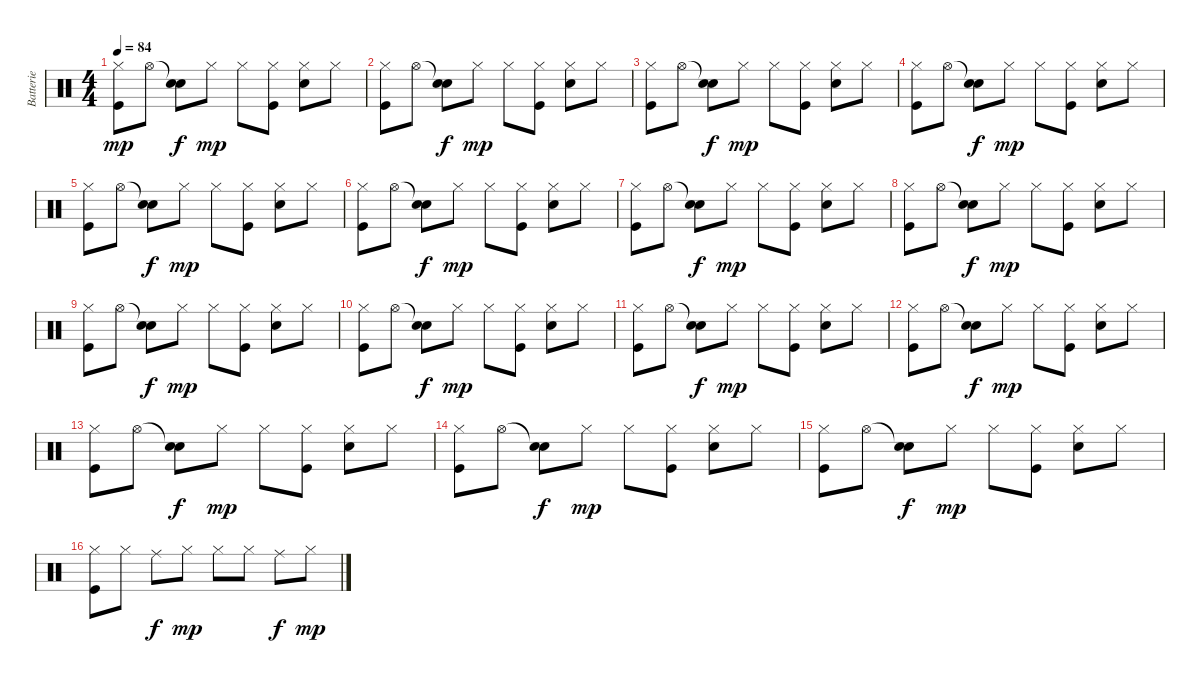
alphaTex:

\track ("Batterie" "Batterie") {instrument percussion}
\staff {score}
\articulation defaults
\ts (4 4)
\tempo 84
\clef neutral
\ks c
("Hi-Hat (closed)" "Kick (hit)").8{dy mp} "Hi-Hat (open)".8 ("Snare (hit)"{t} "Snare (hit) 2").8{dy f} "Hi-Hat (closed)".8{dy mp} "Hi-Hat (closed)".8 ("Hi-Hat (closed)" "Kick (hit)").8 ("Hi-Hat (closed)" "Snare (hit) 2").8 "Hi-Hat (closed)".8 |
("Hi-Hat (closed)" "Kick (hit)").8 "Hi-Hat (open)".8 ("Snare (hit)"{t} "Snare (hit) 2").8{dy f} "Hi-Hat (closed)".8{dy mp} "Hi-Hat (closed)".8 ("Hi-Hat (closed)" "Kick (hit)").8 ("Hi-Hat (closed)" "Snare (hit) 2").8 "Hi-Hat (closed)".8 |
("Hi-Hat (closed)" "Kick (hit)").8 "Hi-Hat (open)".8 ("Snare (hit)"{t} "Snare (hit) 2").8{dy f} "Hi-Hat (closed)".8{dy mp} "Hi-Hat (closed)".8 ("Hi-Hat (closed)" "Kick (hit)").8 ("Hi-Hat (closed)" "Snare (hit) 2").8 "Hi-Hat (closed)".8 |
("Hi-Hat (closed)" "Kick (hit)").8 "Hi-Hat (open)".8 ("Snare (hit)"{t} "Snare (hit) 2").8{dy f} "Hi-Hat (closed)".8{dy mp} "Hi-Hat (closed)".8 ("Hi-Hat (closed)" "Kick (hit)").8 ("Hi-Hat (closed)" "Snare (hit) 2").8 "Hi-Hat (closed)".8 |
("Hi-Hat (closed)" "Kick (hit)").8 "Hi-Hat (open)".8 ("Snare (hit)"{t} "Snare (hit) 2").8{dy f} "Hi-Hat (closed)".8{dy mp} "Hi-Hat (closed)".8 ("Hi-Hat (closed)" "Kick (hit)").8 ("Hi-Hat (closed)" "Snare (hit) 2").8 "Hi-Hat (closed)".8 |
("Hi-Hat (closed)" "Kick (hit)").8 "Hi-Hat (open)".8 ("Snare (hit)"{t} "Snare (hit) 2").8{dy f} "Hi-Hat (closed)".8{dy mp} "Hi-Hat (closed)".8 ("Hi-Hat (closed)" "Kick (hit)").8 ("Hi-Hat (closed)" "Snare (hit) 2").8 "Hi-Hat (closed)".8 |
("Hi-Hat (closed)" "Kick (hit)").8 "Hi-Hat (open)".8 ("Snare (hit)"{t} "Snare (hit) 2").8{dy f} "Hi-Hat (closed)".8{dy mp} "Hi-Hat (closed)".8 ("Hi-Hat (closed)" "Kick (hit)").8 ("Hi-Hat (closed)" "Snare (hit) 2").8 "Hi-Hat (closed)".8 |
("Hi-Hat (closed)" "Kick (hit)").8 "Hi-Hat (open)".8 ("Snare (hit)"{t} "Snare (hit) 2").8{dy f} "Hi-Hat (closed)".8{dy mp} "Hi-Hat (closed)".8 ("Hi-Hat (closed)" "Kick (hit)").8 ("Hi-Hat (closed)" "Snare (hit) 2").8 "Hi-Hat (closed)".8 |
("Hi-Hat (closed)" "Kick (hit)").8 "Hi-Hat (open)".8 ("Snare (hit)"{t} "Snare (hit) 2").8{dy f} "Hi-Hat (closed)".8{dy mp} "Hi-Hat (closed)".8 ("Hi-Hat (closed)" "Kick (hit)").8 ("Hi-Hat (closed)" "Snare (hit) 2").8 "Hi-Hat (closed)".8 |
("Hi-Hat (closed)" "Kick (hit)").8 "Hi-Hat (open)".8 ("Snare (hit)"{t} "Snare (hit) 2").8{dy f} "Hi-Hat (closed)".8{dy mp} "Hi-Hat (closed)".8 ("Hi-Hat (closed)" "Kick (hit)").8 ("Hi-Hat (closed)" "Snare (hit) 2").8 "Hi-Hat (closed)".8 |
("Hi-Hat (closed)" "Kick (hit)").8 "Hi-Hat (open)".8 ("Snare (hit)"{t} "Snare (hit) 2").8{dy f} "Hi-Hat (closed)".8{dy mp} "Hi-Hat (closed)".8 ("Hi-Hat (closed)" "Kick (hit)").8 ("Hi-Hat (closed)" "Snare (hit) 2").8 "Hi-Hat (closed)".8 |
("Hi-Hat (closed)" "Kick (hit)").8 "Hi-Hat (open)".8 ("Snare (hit)"{t} "Snare (hit) 2").8{dy f} "Hi-Hat (closed)".8{dy mp} "Hi-Hat (closed)".8 ("Hi-Hat (closed)" "Kick (hit)").8 ("Hi-Hat (closed)" "Snare (hit) 2").8 "Hi-Hat (closed)".8 |
("Hi-Hat (closed)" "Kick (hit)").8 "Hi-Hat (open)".8 ("Snare (hit)"{t} "Snare (hit) 2").8{dy f} "Hi-Hat (closed)".8{dy mp} "Hi-Hat (closed)".8 ("Hi-Hat (closed)" "Kick (hit)").8 ("Hi-Hat (closed)" "Snare (hit) 2").8 "Hi-Hat (closed)".8 |
("Hi-Hat (closed)" "Kick (hit)").8 "Hi-Hat (open)".8 ("Snare (hit)"{t} "Snare (hit) 2").8{dy f} "Hi-Hat (closed)".8{dy mp} "Hi-Hat (closed)".8 ("Hi-Hat (closed)" "Kick (hit)").8 ("Hi-Hat (closed)" "Snare (hit) 2").8 "Hi-Hat (closed)".8 |
("Hi-Hat (closed)" "Kick (hit)").8 "Hi-Hat (open)".8 ("Snare (hit)"{t} "Snare (hit) 2").8{dy f} "Hi-Hat (closed)".8{dy mp} "Hi-Hat (closed)".8 ("Hi-Hat (closed)" "Kick (hit)").8 ("Hi-Hat (closed)" "Snare (hit) 2").8 "Hi-Hat (closed)".8 |
("Hi-Hat (closed)" "Kick (hit)").8 "Hi-Hat (closed)".8 "Ride (middle)".8{dy f} "Hi-Hat (closed)".8{dy mp} "Hi-Hat (closed)".8 "Hi-Hat (closed)".8 "Ride (middle)".8{dy f} "Hi-Hat (closed)".8{dy mp}
